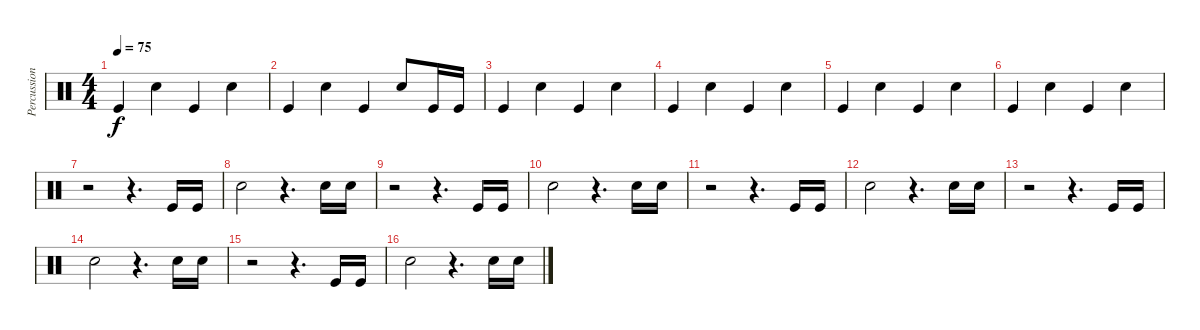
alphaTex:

\track ("Percussioni" "Percussion") {instrument percussion}
\staff {score}
\articulation defaults
\ts (4 4)
\tempo 75
\clef neutral
\ks c "Kick (hit)".4{dy f} "Snare (hit) 2".4 "Kick (hit)".4 "Snare (hit) 2".4
|
"Kick (hit)".4 "Snare (hit) 2".4 "Kick (hit)".4 "Snare (hit) 2".8 "Kick (hit)".16 "Kick (hit)".16 |
"Kick (hit)".4 "Snare (hit) 2".4 "Kick (hit)".4 "Snare (hit) 2".4 |
"Kick (hit)".4 "Snare (hit) 2".4 "Kick (hit)".4 "Snare (hit) 2".4 |
"Kick (hit)".4 "Snare (hit) 2".4 "Kick (hit)".4 "Snare (hit) 2".4 |
"Kick (hit)".4 "Snare (hit) 2".4 "Kick (hit)".4 "Snare (hit) 2".4 |
r.2 r.4{d} "Kick (hit)".16 "Kick (hit)".16 |
"Snare (hit) 2".2 r.4{d} "Snare (hit) 2".16 "Snare (hit) 2".16 |
r.2 r.4{d} "Kick (hit)".16 "Kick (hit)".16 |
"Snare (hit) 2".2 r.4{d} "Snare (hit) 2".16 "Snare (hit) 2".16 |
r.2 r.4{d} "Kick (hit)".16 "Kick (hit)".16 |
"Snare (hit) 2".2 r.4{d} "Snare (hit) 2".16 "Snare (hit) 2".16 |
r.2 r.4{d} "Kick (hit)".16 "Kick (hit)".16 |
"Snare (hit) 2".2 r.4{d} "Snare (hit) 2".16 "Snare (hit) 2".16 |
r.2 r.4{d} "Kick (hit)".16 "Kick (hit)".16 |
"Snare (hit) 2".2 r.4{d} "Snare (hit) 2".16 "Snare (hit) 2".16
